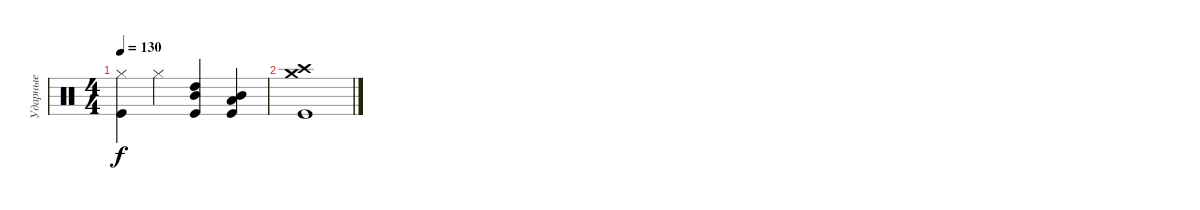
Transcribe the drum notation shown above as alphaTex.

\track ("Ударные" "Ударные") {instrument percussion}
\staff {score}
\articulation defaults
\ts (4 4)
\tempo 130
\clef neutral
\ks c
("Kick (hit)" "Hi-Hat (closed)").4{dy f} "Hi-Hat (closed)".4 ("High Tom (hit)" "Mid Tom (hit)" "Kick (hit)").4 ("Mid Tom (hit)" "Low Tom (hit)" "Kick (hit)").4 |
("Crash medium (hit)" "Crash high (hit)" "Kick (hit)").1
